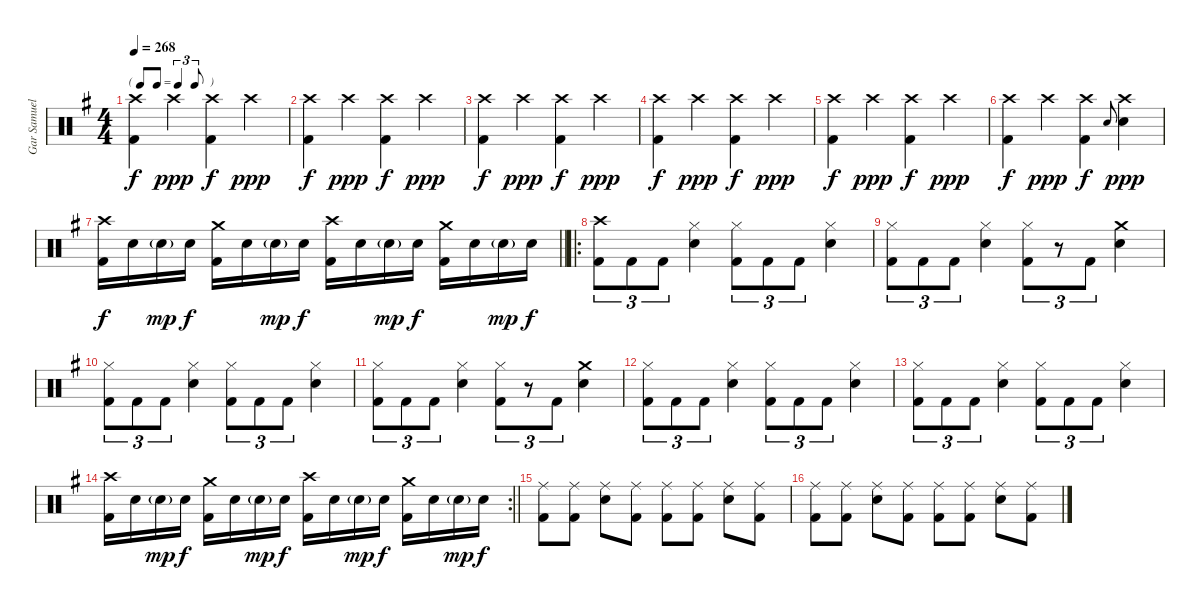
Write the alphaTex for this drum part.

\track ("Gar Samuelson" "Gar Samuel") {instrument percussion}
\staff {score}
\articulation defaults
\ts (4 4)
\tf triplet8th
\tempo 268
\clef neutral
\ks g
("Crash high (hit)" "Kick (hit) 2").4{dy f} "Crash high (hit)".4{dy ppp} ("Crash high (hit)" "Kick (hit) 2").4{dy f} "Crash high (hit)".4{dy ppp} |
("Crash high (hit)" "Kick (hit) 2").4{dy f} "Crash high (hit)".4{dy ppp} ("Crash high (hit)" "Kick (hit) 2").4{dy f} "Crash high (hit)".4{dy ppp} |
("Crash high (hit)" "Kick (hit) 2").4{dy f} "Crash high (hit)".4{dy ppp} ("Crash high (hit)" "Kick (hit) 2").4{dy f} "Crash high (hit)".4{dy ppp} |
("Crash high (hit)" "Kick (hit) 2").4{dy f} "Crash high (hit)".4{dy ppp} ("Crash high (hit)" "Kick (hit) 2").4{dy f} "Crash high (hit)".4{dy ppp} |
("Crash high (hit)" "Kick (hit) 2").4{dy f} "Crash high (hit)".4{dy ppp} ("Crash high (hit)" "Kick (hit) 2").4{dy f} "Crash high (hit)".4{dy ppp} |
("Crash high (hit)" "Kick (hit) 2").4{dy f} "Crash high (hit)".4{dy ppp} ("Crash high (hit)" "Kick (hit) 2").4{dy f} "Snare (hit) 2".8{gr onbeat} ("Crash high (hit)" "Snare (hit) 2").4{dy ppp} |
\barLineRight lightlight
("Crash high (hit)" "Kick (hit) 2").16{dy f} "Snare (hit) 2".16 "Snare (hit) 2"{g}.16{dy mp} "Snare (hit) 2".16{dy f} ("Crash medium (hit)" "Kick (hit) 2").16 "Snare (hit) 2".16 "Snare (hit) 2"{g}.16{dy mp} "Snare (hit) 2".16{dy f} ("Crash high (hit)" "Kick (hit) 2").16 "Snare (hit) 2".16 "Snare (hit) 2"{g}.16{dy mp} "Snare (hit) 2".16{dy f} ("Crash medium (hit)" "Kick (hit) 2").16 "Snare (hit) 2".16 "Snare (hit) 2"{g}.16{dy mp} "Snare (hit) 2".16{dy f} |
\ro
("Crash high (hit)" "Kick (hit) 2").8{tu (3 2)} "Kick (hit) 2".8{tu (3 2)} "Kick (hit) 2".8{tu (3 2)} ("Hi-Hat (closed)" "Snare (hit) 2").4 ("Hi-Hat (closed)" "Kick (hit) 2").8{tu (3 2)} "Kick (hit) 2".8{tu (3 2)} "Kick (hit) 2".8{tu (3 2)} ("Hi-Hat (closed)" "Snare (hit) 2").4 |
("Hi-Hat (closed)" "Kick (hit) 2").8{tu (3 2)} "Kick (hit) 2".8{tu (3 2)} "Kick (hit) 2".8{tu (3 2)} ("Hi-Hat (closed)" "Snare (hit) 2").4 ("Hi-Hat (closed)" "Kick (hit) 2").8{tu (3 2)} r.8{tu (3 2)} "Kick (hit) 2".8{tu (3 2)} ("Crash medium (hit)" "Snare (hit) 2").4 |
("Hi-Hat (closed)" "Kick (hit) 2").8{tu (3 2)} "Kick (hit) 2".8{tu (3 2)} "Kick (hit) 2".8{tu (3 2)} ("Hi-Hat (closed)" "Snare (hit) 2").4 ("Hi-Hat (closed)" "Kick (hit) 2").8{tu (3 2)} "Kick (hit) 2".8{tu (3 2)} "Kick (hit) 2".8{tu (3 2)} ("Hi-Hat (closed)" "Snare (hit) 2").4 |
("Hi-Hat (closed)" "Kick (hit) 2").8{tu (3 2)} "Kick (hit) 2".8{tu (3 2)} "Kick (hit) 2".8{tu (3 2)} ("Hi-Hat (closed)" "Snare (hit) 2").4 ("Hi-Hat (closed)" "Kick (hit) 2").8{tu (3 2)} r.8{tu (3 2)} "Kick (hit) 2".8{tu (3 2)} ("Crash medium (hit)" "Snare (hit) 2").4 |
("Hi-Hat (closed)" "Kick (hit) 2").8{tu (3 2)} "Kick (hit) 2".8{tu (3 2)} "Kick (hit) 2".8{tu (3 2)} ("Hi-Hat (closed)" "Snare (hit) 2").4 ("Hi-Hat (closed)" "Kick (hit) 2").8{tu (3 2)} "Kick (hit) 2".8{tu (3 2)} "Kick (hit) 2".8{tu (3 2)} ("Hi-Hat (closed)" "Snare (hit) 2").4 |
("Hi-Hat (closed)" "Kick (hit) 2").8{tu (3 2)} "Kick (hit) 2".8{tu (3 2)} "Kick (hit) 2".8{tu (3 2)} ("Hi-Hat (closed)" "Snare (hit) 2").4 ("Hi-Hat (closed)" "Kick (hit) 2").8{tu (3 2)} "Kick (hit) 2".8{tu (3 2)} "Kick (hit) 2".8{tu (3 2)} ("Hi-Hat (closed)" "Snare (hit) 2").4 |
\rc 2
\barLineRight lightlight
("Crash high (hit)" "Kick (hit) 2").16 "Snare (hit) 2".16 "Snare (hit) 2"{g}.16{dy mp} "Snare (hit) 2".16{dy f} ("Crash medium (hit)" "Kick (hit) 2").16 "Snare (hit) 2".16 "Snare (hit) 2"{g}.16{dy mp} "Snare (hit) 2".16{dy f} ("Crash high (hit)" "Kick (hit) 2").16 "Snare (hit) 2".16 "Snare (hit) 2"{g}.16{dy mp} "Snare (hit) 2".16{dy f} ("Crash medium (hit)" "Kick (hit) 2").16 "Snare (hit) 2".16 "Snare (hit) 2"{g}.16{dy mp} "Snare (hit) 2".16{dy f} |
("Ride (middle)" "Kick (hit) 2").8 ("Ride (middle)" "Kick (hit) 2").8 ("Ride (middle)" "Snare (hit) 2").8 ("Ride (middle)" "Kick (hit) 2").8 ("Ride (middle)" "Kick (hit) 2").8 ("Ride (middle)" "Kick (hit) 2").8 ("Ride (middle)" "Snare (hit) 2").8 ("Ride (middle)" "Kick (hit) 2").8 |
("Ride (middle)" "Kick (hit) 2").8 ("Ride (middle)" "Kick (hit) 2").8 ("Ride (middle)" "Snare (hit) 2").8 ("Ride (middle)" "Kick (hit) 2").8 ("Ride (middle)" "Kick (hit) 2").8 ("Ride (middle)" "Kick (hit) 2").8 ("Ride (middle)" "Snare (hit) 2").8 ("Ride (middle)" "Kick (hit) 2").8
